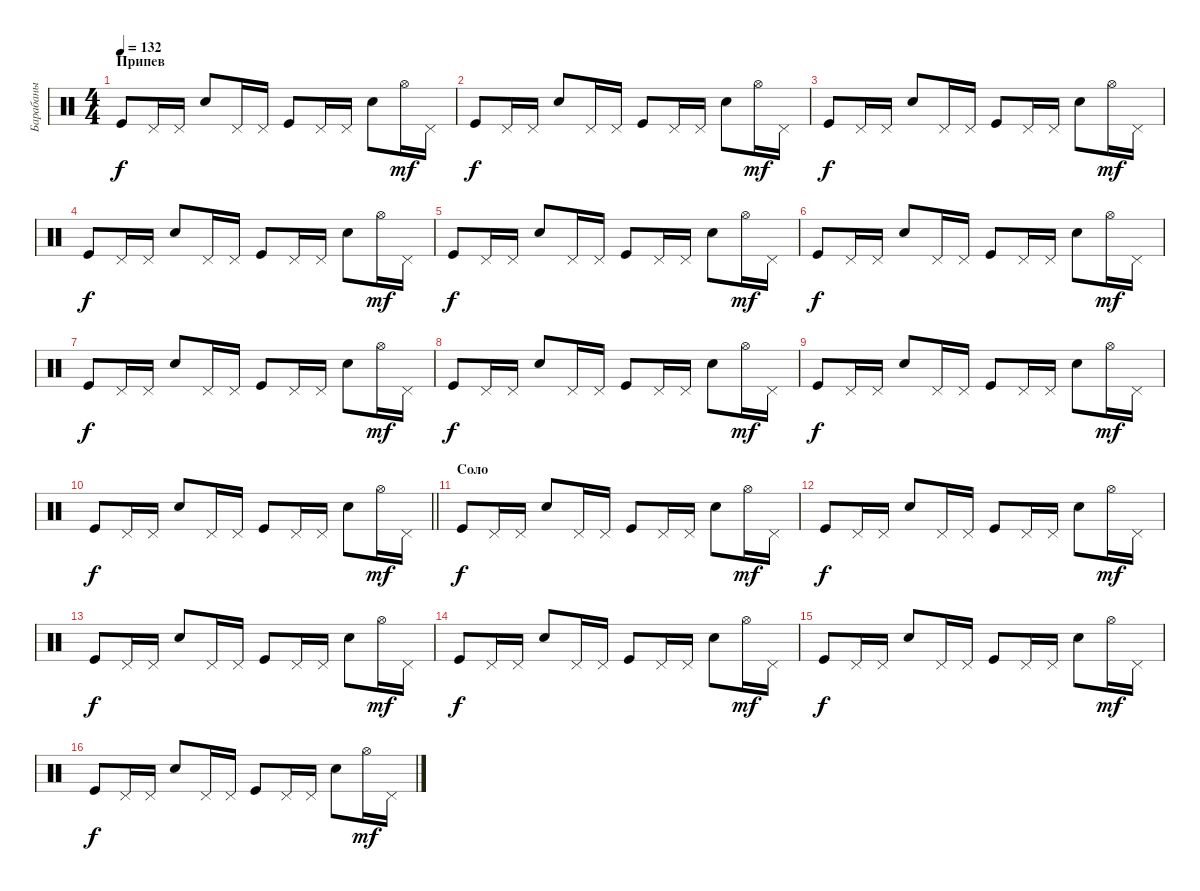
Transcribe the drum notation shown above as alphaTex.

\track ("Барабаны" "Барабаны") {instrument percussion}
\staff {score}
\articulation defaults
\ts (4 4)
\section ("" "Припев")
\tempo 132
\clef neutral
\ks c "Kick (hit)".8{dy f} "Pedal Hi-Hat (hit)".16 "Pedal Hi-Hat (hit)".16 "Snare (hit) 2".8 "Pedal Hi-Hat (hit)".16 "Pedal Hi-Hat (hit)".16 "Kick (hit)".8 "Pedal Hi-Hat (hit)".16 "Pedal Hi-Hat (hit)".16 "Snare (hit) 2".8 "Hi-Hat (open)".16{dy mf} "Pedal Hi-Hat (hit)".16
|
"Kick (hit)".8{dy f} "Pedal Hi-Hat (hit)".16 "Pedal Hi-Hat (hit)".16 "Snare (hit) 2".8 "Pedal Hi-Hat (hit)".16 "Pedal Hi-Hat (hit)".16 "Kick (hit)".8 "Pedal Hi-Hat (hit)".16 "Pedal Hi-Hat (hit)".16 "Snare (hit) 2".8 "Hi-Hat (open)".16{dy mf} "Pedal Hi-Hat (hit)".16 |
"Kick (hit)".8{dy f} "Pedal Hi-Hat (hit)".16 "Pedal Hi-Hat (hit)".16 "Snare (hit) 2".8 "Pedal Hi-Hat (hit)".16 "Pedal Hi-Hat (hit)".16 "Kick (hit)".8 "Pedal Hi-Hat (hit)".16 "Pedal Hi-Hat (hit)".16 "Snare (hit) 2".8 "Hi-Hat (open)".16{dy mf} "Pedal Hi-Hat (hit)".16 |
"Kick (hit)".8{dy f} "Pedal Hi-Hat (hit)".16 "Pedal Hi-Hat (hit)".16 "Snare (hit) 2".8 "Pedal Hi-Hat (hit)".16 "Pedal Hi-Hat (hit)".16 "Kick (hit)".8 "Pedal Hi-Hat (hit)".16 "Pedal Hi-Hat (hit)".16 "Snare (hit) 2".8 "Hi-Hat (open)".16{dy mf} "Pedal Hi-Hat (hit)".16 |
"Kick (hit)".8{dy f} "Pedal Hi-Hat (hit)".16 "Pedal Hi-Hat (hit)".16 "Snare (hit) 2".8 "Pedal Hi-Hat (hit)".16 "Pedal Hi-Hat (hit)".16 "Kick (hit)".8 "Pedal Hi-Hat (hit)".16 "Pedal Hi-Hat (hit)".16 "Snare (hit) 2".8 "Hi-Hat (open)".16{dy mf} "Pedal Hi-Hat (hit)".16 |
"Kick (hit)".8{dy f} "Pedal Hi-Hat (hit)".16 "Pedal Hi-Hat (hit)".16 "Snare (hit) 2".8 "Pedal Hi-Hat (hit)".16 "Pedal Hi-Hat (hit)".16 "Kick (hit)".8 "Pedal Hi-Hat (hit)".16 "Pedal Hi-Hat (hit)".16 "Snare (hit) 2".8 "Hi-Hat (open)".16{dy mf} "Pedal Hi-Hat (hit)".16 |
"Kick (hit)".8{dy f} "Pedal Hi-Hat (hit)".16 "Pedal Hi-Hat (hit)".16 "Snare (hit) 2".8 "Pedal Hi-Hat (hit)".16 "Pedal Hi-Hat (hit)".16 "Kick (hit)".8 "Pedal Hi-Hat (hit)".16 "Pedal Hi-Hat (hit)".16 "Snare (hit) 2".8 "Hi-Hat (open)".16{dy mf} "Pedal Hi-Hat (hit)".16 |
"Kick (hit)".8{dy f} "Pedal Hi-Hat (hit)".16 "Pedal Hi-Hat (hit)".16 "Snare (hit) 2".8 "Pedal Hi-Hat (hit)".16 "Pedal Hi-Hat (hit)".16 "Kick (hit)".8 "Pedal Hi-Hat (hit)".16 "Pedal Hi-Hat (hit)".16 "Snare (hit) 2".8 "Hi-Hat (open)".16{dy mf} "Pedal Hi-Hat (hit)".16 |
"Kick (hit)".8{dy f} "Pedal Hi-Hat (hit)".16 "Pedal Hi-Hat (hit)".16 "Snare (hit) 2".8 "Pedal Hi-Hat (hit)".16 "Pedal Hi-Hat (hit)".16 "Kick (hit)".8 "Pedal Hi-Hat (hit)".16 "Pedal Hi-Hat (hit)".16 "Snare (hit) 2".8 "Hi-Hat (open)".16{dy mf} "Pedal Hi-Hat (hit)".16 |
\barLineRight lightlight "Kick (hit)".8{dy f} "Pedal Hi-Hat (hit)".16 "Pedal Hi-Hat (hit)".16 "Snare (hit) 2".8 "Pedal Hi-Hat (hit)".16 "Pedal Hi-Hat (hit)".16 "Kick (hit)".8 "Pedal Hi-Hat (hit)".16 "Pedal Hi-Hat (hit)".16 "Snare (hit) 2".8 "Hi-Hat (open)".16{dy mf} "Pedal Hi-Hat (hit)".16
|
\section ("" "Соло")
"Kick (hit)".8{dy f} "Pedal Hi-Hat (hit)".16 "Pedal Hi-Hat (hit)".16 "Snare (hit) 2".8 "Pedal Hi-Hat (hit)".16 "Pedal Hi-Hat (hit)".16 "Kick (hit)".8 "Pedal Hi-Hat (hit)".16 "Pedal Hi-Hat (hit)".16 "Snare (hit) 2".8 "Hi-Hat (open)".16{dy mf} "Pedal Hi-Hat (hit)".16 |
"Kick (hit)".8{dy f} "Pedal Hi-Hat (hit)".16 "Pedal Hi-Hat (hit)".16 "Snare (hit) 2".8 "Pedal Hi-Hat (hit)".16 "Pedal Hi-Hat (hit)".16 "Kick (hit)".8 "Pedal Hi-Hat (hit)".16 "Pedal Hi-Hat (hit)".16 "Snare (hit) 2".8 "Hi-Hat (open)".16{dy mf} "Pedal Hi-Hat (hit)".16 |
"Kick (hit)".8{dy f} "Pedal Hi-Hat (hit)".16 "Pedal Hi-Hat (hit)".16 "Snare (hit) 2".8 "Pedal Hi-Hat (hit)".16 "Pedal Hi-Hat (hit)".16 "Kick (hit)".8 "Pedal Hi-Hat (hit)".16 "Pedal Hi-Hat (hit)".16 "Snare (hit) 2".8 "Hi-Hat (open)".16{dy mf} "Pedal Hi-Hat (hit)".16 |
"Kick (hit)".8{dy f} "Pedal Hi-Hat (hit)".16 "Pedal Hi-Hat (hit)".16 "Snare (hit) 2".8 "Pedal Hi-Hat (hit)".16 "Pedal Hi-Hat (hit)".16 "Kick (hit)".8 "Pedal Hi-Hat (hit)".16 "Pedal Hi-Hat (hit)".16 "Snare (hit) 2".8 "Hi-Hat (open)".16{dy mf} "Pedal Hi-Hat (hit)".16 |
"Kick (hit)".8{dy f} "Pedal Hi-Hat (hit)".16 "Pedal Hi-Hat (hit)".16 "Snare (hit) 2".8 "Pedal Hi-Hat (hit)".16 "Pedal Hi-Hat (hit)".16 "Kick (hit)".8 "Pedal Hi-Hat (hit)".16 "Pedal Hi-Hat (hit)".16 "Snare (hit) 2".8 "Hi-Hat (open)".16{dy mf} "Pedal Hi-Hat (hit)".16 |
"Kick (hit)".8{dy f} "Pedal Hi-Hat (hit)".16 "Pedal Hi-Hat (hit)".16 "Snare (hit) 2".8 "Pedal Hi-Hat (hit)".16 "Pedal Hi-Hat (hit)".16 "Kick (hit)".8 "Pedal Hi-Hat (hit)".16 "Pedal Hi-Hat (hit)".16 "Snare (hit) 2".8 "Hi-Hat (open)".16{dy mf} "Pedal Hi-Hat (hit)".16
